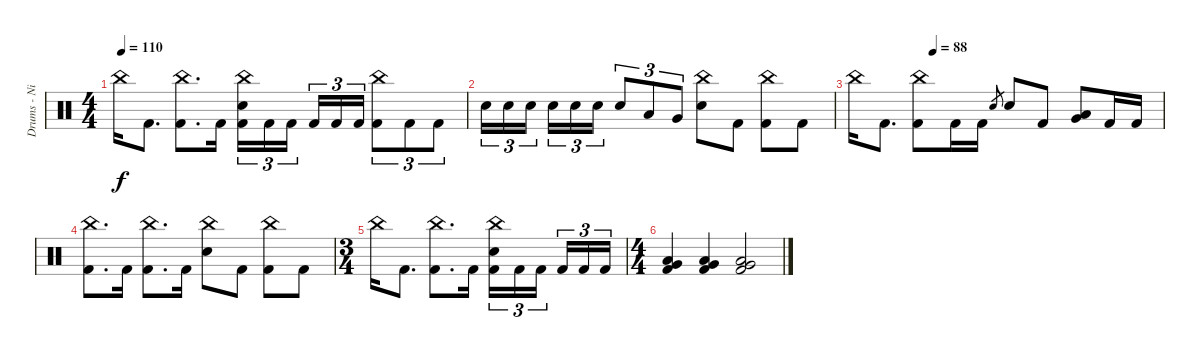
\track ("Drums - Nic" "Drums - Ni") {instrument percussion}
\staff {score}
\articulation defaults
\ts (4 4)
\tempo 110
\clef neutral
\ks c "China (hit)".16{dy f} "Kick (hit) 2".8{d}
("China (hit)" "Kick (hit) 2").8{d} "Kick (hit) 2".16 ("China (hit)" "Electric Snare (hit)" "Kick (hit) 2").16{tu (3 2)} "Kick (hit) 2".16{tu (3 2)} "Kick (hit) 2".16{tu (3 2) beam splitsecondary} "Kick (hit) 2".16{tu (3 2)} "Kick (hit) 2".16{tu (3 2)} "Kick (hit) 2".16{tu (3 2)} ("China (hit)" "Kick (hit) 2").8{tu (3 2)} "Kick (hit) 2".8{tu (3 2)} "Kick (hit) 2".8{tu (3 2)} |
"Electric Snare (hit)".16{tu (3 2)} "Electric Snare (hit)".16{tu (3 2)} "Electric Snare (hit)".16{tu (3 2) beam splitsecondary} "Electric Snare (hit)".16{tu (3 2)} "Electric Snare (hit)".16{tu (3 2)} "Electric Snare (hit)".16{tu (3 2)} "Electric Snare (hit)".8{tu (3 2)} "Low Tom (hit)".8{tu (3 2)} "Very Low Tom (hit)".8{tu (3 2)} ("China (hit)" "Electric Snare (hit)").8 "Kick (hit) 2".8 ("China (hit)" "Kick (hit) 2").8 "Kick (hit) 2".8 |
\tempo (88 0.25)
"China (hit)".16 "Kick (hit) 2".8{d} ("China (hit)" "Kick (hit) 2").8 "Kick (hit) 2".16 "Kick (hit) 2".16 "Electric Snare (hit)".8{gr} "Electric Snare (hit)".8 "Kick (hit) 2".8 ("Very Low Tom (hit)" "Low Floor Tom (hit)").8 "Kick (hit) 2".16 "Kick (hit) 2".16 |
("China (hit)" "Kick (hit) 2").8{d} "Kick (hit) 2".16 ("China (hit)" "Kick (hit) 2").8{d} "Kick (hit) 2".16 ("China (hit)" "Electric Snare (hit)").8 "Kick (hit) 2".8 ("China (hit)" "Kick (hit) 2").8 "Kick (hit) 2".8 |
\ts (3 4)
"China (hit)".16 "Kick (hit) 2".8{d} ("China (hit)" "Kick (hit) 2").8{d} "Kick (hit) 2".16 ("China (hit)" "Electric Snare (hit)" "Kick (hit) 2").16{tu (3 2)} "Kick (hit) 2".16{tu (3 2)} "Kick (hit) 2".16{tu (3 2) beam splitsecondary} "Kick (hit) 2".16{tu (3 2)} "Kick (hit) 2".16{tu (3 2)} "Kick (hit) 2".16{tu (3 2)} |
\ts (4 4)
("Very Low Tom (hit)" "Low Floor Tom (hit)" "Kick (hit) 2").4 ("Very Low Tom (hit)" "Low Floor Tom (hit)" "Kick (hit) 2").4 ("Very Low Tom (hit)" "Low Floor Tom (hit)" "Kick (hit) 2").2
